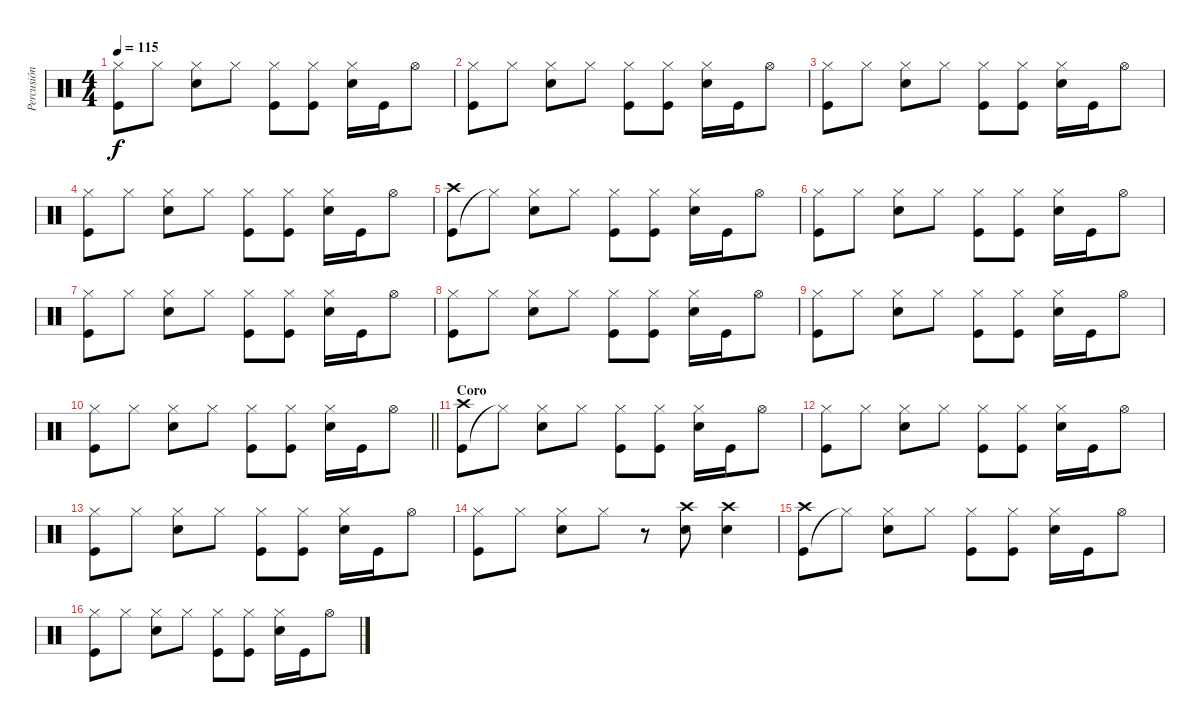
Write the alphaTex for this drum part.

\track ("Percusión" "Percusión") {instrument percussion}
\staff {score}
\articulation defaults
\ts (4 4)
\tempo 115
\clef neutral
\ks c
("Kick (hit)" "Hi-Hat (closed)").8{dy f} "Hi-Hat (closed)".8 ("Snare (hit) 2" "Hi-Hat (closed)").8 "Hi-Hat (closed)".8 ("Kick (hit)" "Hi-Hat (closed)").8 ("Kick (hit)" "Hi-Hat (closed)").8 ("Snare (hit) 2" "Hi-Hat (closed)").16 "Kick (hit)".16 "Hi-Hat (open)".8 |
("Kick (hit)" "Hi-Hat (closed)").8 "Hi-Hat (closed)".8 ("Snare (hit) 2" "Hi-Hat (closed)").8 "Hi-Hat (closed)".8 ("Kick (hit)" "Hi-Hat (closed)").8 ("Kick (hit)" "Hi-Hat (closed)").8 ("Snare (hit) 2" "Hi-Hat (closed)").16 "Kick (hit)".16 "Hi-Hat (open)".8 |
("Kick (hit)" "Hi-Hat (closed)").8 "Hi-Hat (closed)".8 ("Snare (hit) 2" "Hi-Hat (closed)").8 "Hi-Hat (closed)".8 ("Kick (hit)" "Hi-Hat (closed)").8 ("Kick (hit)" "Hi-Hat (closed)").8 ("Snare (hit) 2" "Hi-Hat (closed)").16 "Kick (hit)".16 "Hi-Hat (open)".8 |
("Kick (hit)" "Hi-Hat (closed)").8 "Hi-Hat (closed)".8 ("Snare (hit) 2" "Hi-Hat (closed)").8 "Hi-Hat (closed)".8 ("Kick (hit)" "Hi-Hat (closed)").8 ("Kick (hit)" "Hi-Hat (closed)").8 ("Snare (hit) 2" "Hi-Hat (closed)").16 "Kick (hit)".16 "Hi-Hat (open)".8 |
("Kick (hit)" "Crash high (hit)").8 "Hi-Hat (closed)"{t}.8 ("Snare (hit) 2" "Hi-Hat (closed)").8 "Hi-Hat (closed)".8 ("Kick (hit)" "Hi-Hat (closed)").8 ("Kick (hit)" "Hi-Hat (closed)").8 ("Snare (hit) 2" "Hi-Hat (closed)").16 "Kick (hit)".16 "Hi-Hat (open)".8 |
("Kick (hit)" "Hi-Hat (closed)").8 "Hi-Hat (closed)".8 ("Snare (hit) 2" "Hi-Hat (closed)").8 "Hi-Hat (closed)".8 ("Kick (hit)" "Hi-Hat (closed)").8 ("Kick (hit)" "Hi-Hat (closed)").8 ("Snare (hit) 2" "Hi-Hat (closed)").16 "Kick (hit)".16 "Hi-Hat (open)".8 |
("Kick (hit)" "Hi-Hat (closed)").8 "Hi-Hat (closed)".8 ("Snare (hit) 2" "Hi-Hat (closed)").8 "Hi-Hat (closed)".8 ("Kick (hit)" "Hi-Hat (closed)").8 ("Kick (hit)" "Hi-Hat (closed)").8 ("Snare (hit) 2" "Hi-Hat (closed)").16 "Kick (hit)".16 "Hi-Hat (open)".8 |
("Kick (hit)" "Hi-Hat (closed)").8 "Hi-Hat (closed)".8 ("Snare (hit) 2" "Hi-Hat (closed)").8 "Hi-Hat (closed)".8 ("Kick (hit)" "Hi-Hat (closed)").8 ("Kick (hit)" "Hi-Hat (closed)").8 ("Snare (hit) 2" "Hi-Hat (closed)").16 "Kick (hit)".16 "Hi-Hat (open)".8 |
("Kick (hit)" "Hi-Hat (closed)").8 "Hi-Hat (closed)".8 ("Snare (hit) 2" "Hi-Hat (closed)").8 "Hi-Hat (closed)".8 ("Kick (hit)" "Hi-Hat (closed)").8 ("Kick (hit)" "Hi-Hat (closed)").8 ("Snare (hit) 2" "Hi-Hat (closed)").16 "Kick (hit)".16 "Hi-Hat (open)".8 |
\barLineRight lightlight
("Kick (hit)" "Hi-Hat (closed)").8 "Hi-Hat (closed)".8 ("Snare (hit) 2" "Hi-Hat (closed)").8 "Hi-Hat (closed)".8 ("Kick (hit)" "Hi-Hat (closed)").8 ("Kick (hit)" "Hi-Hat (closed)").8 ("Snare (hit) 2" "Hi-Hat (closed)").16 "Kick (hit)".16 "Hi-Hat (open)".8 |
\section ("" "Coro")
("Kick (hit)" "Crash high (hit)").8 "Hi-Hat (closed)"{t}.8 ("Snare (hit) 2" "Hi-Hat (closed)").8 "Hi-Hat (closed)".8 ("Kick (hit)" "Hi-Hat (closed)").8 ("Kick (hit)" "Hi-Hat (closed)").8 ("Snare (hit) 2" "Hi-Hat (closed)").16 "Kick (hit)".16 "Hi-Hat (open)".8 |
("Kick (hit)" "Hi-Hat (closed)").8 "Hi-Hat (closed)".8 ("Snare (hit) 2" "Hi-Hat (closed)").8 "Hi-Hat (closed)".8 ("Kick (hit)" "Hi-Hat (closed)").8 ("Kick (hit)" "Hi-Hat (closed)").8 ("Snare (hit) 2" "Hi-Hat (closed)").16 "Kick (hit)".16 "Hi-Hat (open)".8 |
("Kick (hit)" "Hi-Hat (closed)").8 "Hi-Hat (closed)".8 ("Snare (hit) 2" "Hi-Hat (closed)").8 "Hi-Hat (closed)".8 ("Kick (hit)" "Hi-Hat (closed)").8 ("Kick (hit)" "Hi-Hat (closed)").8 ("Snare (hit) 2" "Hi-Hat (closed)").16 "Kick (hit)".16 "Hi-Hat (open)".8 |
("Kick (hit)" "Hi-Hat (closed)").8 "Hi-Hat (closed)".8 ("Snare (hit) 2" "Hi-Hat (closed)").8 "Hi-Hat (closed)".8 r.8 ("Snare (hit) 2" "Crash high (hit)").8 ("Snare (hit) 2" "Crash high (hit)").4 |
("Kick (hit)" "Crash high (hit)").8 "Hi-Hat (closed)"{t}.8 ("Snare (hit) 2" "Hi-Hat (closed)").8 "Hi-Hat (closed)".8 ("Kick (hit)" "Hi-Hat (closed)").8 ("Kick (hit)" "Hi-Hat (closed)").8 ("Snare (hit) 2" "Hi-Hat (closed)").16 "Kick (hit)".16 "Hi-Hat (open)".8 |
("Kick (hit)" "Hi-Hat (closed)").8 "Hi-Hat (closed)".8 ("Snare (hit) 2" "Hi-Hat (closed)").8 "Hi-Hat (closed)".8 ("Kick (hit)" "Hi-Hat (closed)").8 ("Kick (hit)" "Hi-Hat (closed)").8 ("Snare (hit) 2" "Hi-Hat (closed)").16 "Kick (hit)".16 "Hi-Hat (open)".8
